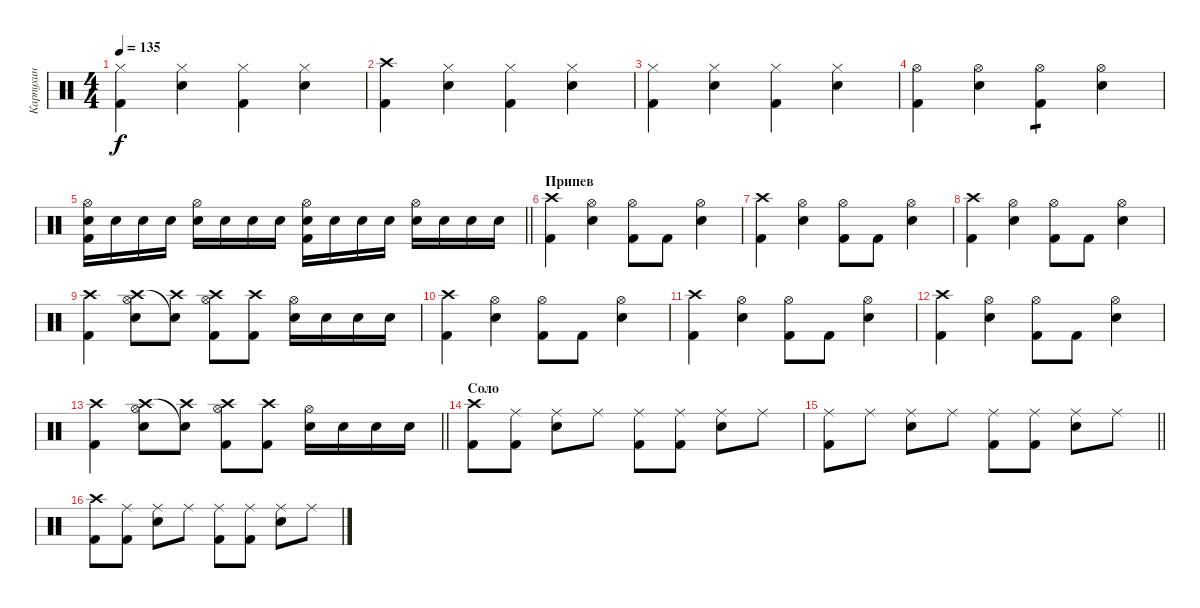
\track ("Карпухин" "Карпухин") {instrument percussion}
\staff {score}
\articulation defaults
\ts (4 4)
\tempo 135
\clef neutral
\ks c
("Kick (hit) 2" "Hi-Hat (closed)").4{dy f} ("Snare (hit) 2" "Hi-Hat (closed)").4 ("Kick (hit) 2" "Hi-Hat (closed)").4 ("Snare (hit) 2" "Hi-Hat (closed)").4 |
("Crash high (hit)" "Kick (hit) 2").4 ("Snare (hit) 2" "Hi-Hat (closed)").4 ("Kick (hit) 2" "Hi-Hat (closed)").4 ("Snare (hit) 2" "Hi-Hat (closed)").4 |
("Kick (hit) 2" "Hi-Hat (closed)").4 ("Snare (hit) 2" "Hi-Hat (closed)").4 ("Kick (hit) 2" "Hi-Hat (closed)").4 ("Snare (hit) 2" "Hi-Hat (closed)").4 |
("Kick (hit) 2" "Hi-Hat (open)").4 ("Snare (hit) 2" "Hi-Hat (open)").4 ("Kick (hit) 2" "Hi-Hat (open)").4{tp 1} ("Snare (hit) 2" "Hi-Hat (open)").4 |
\barLineRight lightlight
("Snare (hit) 2" "Hi-Hat (open)" "Kick (hit) 2").16 "Snare (hit) 2".16 "Snare (hit) 2".16 "Snare (hit) 2".16 ("Snare (hit) 2" "Hi-Hat (open)").16 "Snare (hit) 2".16 "Snare (hit) 2".16 "Snare (hit) 2".16 ("Snare (hit) 2" "Hi-Hat (open)" "Kick (hit) 2").16 "Snare (hit) 2".16 "Snare (hit) 2".16 "Snare (hit) 2".16 ("Snare (hit) 2" "Hi-Hat (open)").16 "Snare (hit) 2".16 "Snare (hit) 2".16 "Snare (hit) 2".16 |
\section ("" "Припев")
("Crash high (hit)" "Kick (hit) 2").4 ("Snare (hit) 2" "Hi-Hat (open)").4 ("Kick (hit) 2" "Hi-Hat (open)").8 "Kick (hit) 2".8 ("Snare (hit) 2" "Hi-Hat (open)").4 |
("Crash high (hit)" "Kick (hit) 2").4 ("Snare (hit) 2" "Hi-Hat (open)").4 ("Kick (hit) 2" "Hi-Hat (open)").8 "Kick (hit) 2".8 ("Snare (hit) 2" "Hi-Hat (open)").4 |
("Crash high (hit)" "Kick (hit) 2").4 ("Snare (hit) 2" "Hi-Hat (open)").4 ("Kick (hit) 2" "Hi-Hat (open)").8 "Kick (hit) 2".8 ("Snare (hit) 2" "Hi-Hat (open)").4 |
("Crash high (hit)" "Kick (hit) 2").4 ("Hi-Hat (open)" "Crash high (hit)" "Snare (hit) 2").8 ("Crash high (hit)" "Snare (hit) 2"{t}).8 ("Hi-Hat (open)" "Crash high (hit)" "Kick (hit) 2").8 ("Crash high (hit)" "Kick (hit) 2").8 ("Hi-Hat (open)" "Snare (hit) 2").16 "Snare (hit) 2".16 "Snare (hit) 2".16 "Snare (hit) 2".16 |
("Crash high (hit)" "Kick (hit) 2").4 ("Snare (hit) 2" "Hi-Hat (open)").4 ("Kick (hit) 2" "Hi-Hat (open)").8 "Kick (hit) 2".8 ("Snare (hit) 2" "Hi-Hat (open)").4 |
("Crash high (hit)" "Kick (hit) 2").4 ("Snare (hit) 2" "Hi-Hat (open)").4 ("Kick (hit) 2" "Hi-Hat (open)").8 "Kick (hit) 2".8 ("Snare (hit) 2" "Hi-Hat (open)").4 |
("Crash high (hit)" "Kick (hit) 2").4 ("Snare (hit) 2" "Hi-Hat (open)").4 ("Kick (hit) 2" "Hi-Hat (open)").8 "Kick (hit) 2".8 ("Snare (hit) 2" "Hi-Hat (open)").4 |
\barLineRight lightlight
("Crash high (hit)" "Kick (hit) 2").4 ("Hi-Hat (open)" "Crash high (hit)" "Snare (hit) 2").8 ("Crash high (hit)" "Snare (hit) 2"{t}).8 ("Hi-Hat (open)" "Crash high (hit)" "Kick (hit) 2").8 ("Crash high (hit)" "Kick (hit) 2").8 ("Hi-Hat (open)" "Snare (hit) 2").16 "Snare (hit) 2".16 "Snare (hit) 2".16 "Snare (hit) 2".16 |
\section ("" "Соло")
("Crash high (hit)" "Kick (hit) 2").8 ("Ride (middle)" "Kick (hit) 2").8 ("Ride (middle)" "Snare (hit) 2").8 "Ride (middle)".8 ("Ride (middle)" "Kick (hit) 2").8 ("Ride (middle)" "Kick (hit) 2").8 ("Ride (middle)" "Snare (hit) 2").8 "Ride (middle)".8 |
\barLineRight lightlight
("Ride (middle)" "Kick (hit) 2").8 "Ride (middle)".8 ("Ride (middle)" "Snare (hit) 2").8 "Ride (middle)".8 ("Ride (middle)" "Kick (hit) 2").8 ("Ride (middle)" "Kick (hit) 2").8 ("Ride (middle)" "Snare (hit) 2").8 "Ride (middle)".8 |
("Crash high (hit)" "Kick (hit) 2").8 ("Ride (middle)" "Kick (hit) 2").8 ("Ride (middle)" "Snare (hit) 2").8 "Ride (middle)".8 ("Ride (middle)" "Kick (hit) 2").8 ("Ride (middle)" "Kick (hit) 2").8 ("Ride (middle)" "Snare (hit) 2").8 "Ride (middle)".8
